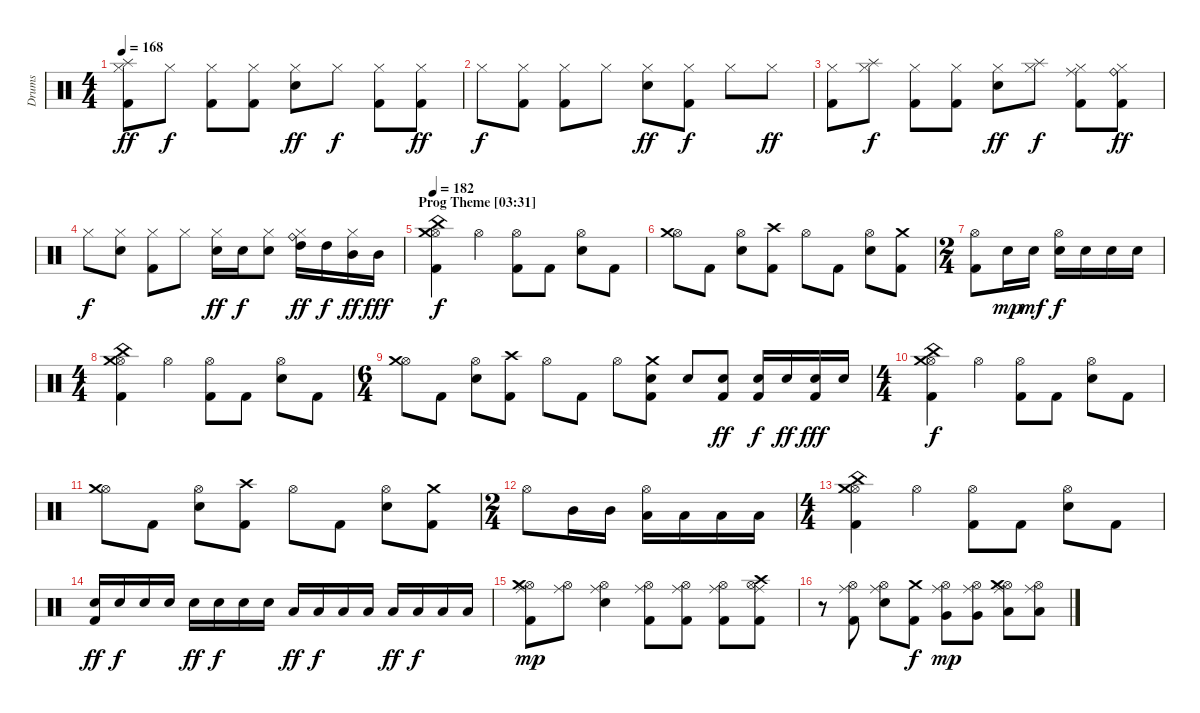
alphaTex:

\track ("Drums" "Drums") {instrument percussion}
\staff {score}
\articulation defaults
\ts (4 4)
\tempo 168
\clef neutral
\ks c
("Hi-Hat (closed)" "Splash (hit)" "Kick (hit) 2").8{dy ff} "Hi-Hat (closed)".8{dy f} ("Hi-Hat (closed)" "Kick (hit) 2").8 ("Hi-Hat (closed)" "Kick (hit) 2").8 ("Hi-Hat (closed)" "Electric Snare (hit)").8{dy ff} "Hi-Hat (closed)".8{dy f} ("Hi-Hat (closed)" "Kick (hit) 2").8 ("Hi-Hat (closed)" "Kick (hit) 2").8{dy ff} |
"Hi-Hat (closed)".8{dy f} ("Hi-Hat (closed)" "Kick (hit) 2").8 ("Hi-Hat (closed)" "Kick (hit) 2").8 "Hi-Hat (closed)".8 ("Hi-Hat (closed)" "Electric Snare (hit)").8{dy ff} ("Hi-Hat (closed)" "Kick (hit) 2").8{dy f} "Hi-Hat (closed)".8 "Hi-Hat (closed)".8{dy ff} |
("Hi-Hat (closed)" "Kick (hit) 2").8 ("Hi-Hat (closed)" "Splash (hit)").8{dy f} ("Hi-Hat (closed)" "Kick (hit) 2").8 ("Hi-Hat (closed)" "Kick (hit) 2").8 ("Hi-Hat (closed)" "Electric Snare (hit)").8{dy ff} ("Hi-Hat (closed)" "Splash (hit)").8{dy f} ("Hi-Hat (closed)" "Ride (middle)" "Kick (hit) 2").8 ("Hi-Hat (closed)" "Ride (bell)" "Kick (hit) 2").8{dy ff} |
"Hi-Hat (closed)".8{dy f} ("Hi-Hat (closed)" "Electric Snare (hit)").8 ("Hi-Hat (closed)" "Kick (hit) 2").8 "Hi-Hat (closed)".8 ("Hi-Hat (closed)" "Electric Snare (hit)").16{dy ff} "Electric Snare (hit)".16{dy f} ("Hi-Hat (closed)" "Electric Snare (hit)").8 ("Hi-Hat (closed)" "Ride (bell)" "High Tom (hit)").16{dy ff} "High Tom (hit)".16{dy f} ("Hi-Hat (closed)" "Mid Tom (hit)").16{dy ff} "Mid Tom (hit)".16{dy fff} |
\section ("" "Prog Theme [03:31]")
\tempo 182
("Hi-Hat (open)" "Crash medium (hit)" "China (hit)" "Kick (hit) 2").4{dy f} "Hi-Hat (open)".4 ("Hi-Hat (open)" "Kick (hit) 2").8 "Kick (hit) 2".8 ("Hi-Hat (open)" "Electric Snare (hit)").8 "Kick (hit) 2".8 |
("Hi-Hat (open)" "Crash medium (hit)").8 "Kick (hit) 2".8 ("Hi-Hat (open)" "Electric Snare (hit)").8 ("Crash high (hit)" "Kick (hit) 2").8 "Hi-Hat (open)".8 "Kick (hit) 2".8 ("Hi-Hat (open)" "Electric Snare (hit)").8 ("Crash medium (hit)" "Kick (hit) 2").8 |
\ts (2 4)
("Hi-Hat (open)" "Kick (hit) 2").8 "Electric Snare (hit)".16{dy mp} "Electric Snare (hit)".16{dy mf} ("Hi-Hat (open)" "Electric Snare (hit)").16{dy f} "Electric Snare (hit)".16 "Electric Snare (hit)".16 "Electric Snare (hit)".16 |
\ts (4 4)
("Hi-Hat (open)" "Crash medium (hit)" "China (hit)" "Kick (hit) 2").4 "Hi-Hat (open)".4 ("Hi-Hat (open)" "Kick (hit) 2").8 "Kick (hit) 2".8 ("Hi-Hat (open)" "Electric Snare (hit)").8 "Kick (hit) 2".8 |
\ts (6 4)
("Hi-Hat (open)" "Crash medium (hit)").8 "Kick (hit) 2".8 ("Hi-Hat (open)" "Electric Snare (hit)").8 ("Crash high (hit)" "Kick (hit) 2").8 "Hi-Hat (open)".8 "Kick (hit) 2".8 "Hi-Hat (open)".8 ("Crash medium (hit)" "Electric Snare (hit)" "Kick (hit) 2").8 "Electric Snare (hit)".8 ("Electric Snare (hit)" "Kick (hit) 2").8{dy ff} ("Electric Snare (hit)" "Kick (hit) 2").16{dy f} "Electric Snare (hit)".16{dy ff} ("Electric Snare (hit)" "Kick (hit) 2").16{dy fff} "Electric Snare (hit)".16 |
\ts (4 4)
("Hi-Hat (open)" "Crash medium (hit)" "China (hit)" "Kick (hit) 2").4{dy f} "Hi-Hat (open)".4 ("Hi-Hat (open)" "Kick (hit) 2").8 "Kick (hit) 2".8 ("Hi-Hat (open)" "Electric Snare (hit)").8 "Kick (hit) 2".8 |
("Hi-Hat (open)" "Crash medium (hit)").8 "Kick (hit) 2".8 ("Hi-Hat (open)" "Electric Snare (hit)").8 ("Crash high (hit)" "Kick (hit) 2").8 "Hi-Hat (open)".8 "Kick (hit) 2".8 ("Hi-Hat (open)" "Electric Snare (hit)").8 ("Crash medium (hit)" "Kick (hit) 2").8 |
\ts (2 4)
"Hi-Hat (open)".8 "Mid Tom (hit)".16 "Mid Tom (hit)".16 ("Hi-Hat (open)" "Low Tom (hit)").16 "Low Tom (hit)".16 "Low Tom (hit)".16 "Low Tom (hit)".16 |
\ts (4 4)
("Hi-Hat (open)" "Crash medium (hit)" "China (hit)" "Kick (hit) 2").4 "Hi-Hat (open)".4 ("Hi-Hat (open)" "Kick (hit) 2").8 "Kick (hit) 2".8 ("Hi-Hat (open)" "Electric Snare (hit)").8 "Kick (hit) 2".8 |
("Electric Snare (hit)" "Kick (hit) 2").16{dy ff} "Electric Snare (hit)".16{dy f} "Electric Snare (hit)".16 "Electric Snare (hit)".16 "Electric Snare (hit)".16{dy ff} "Electric Snare (hit)".16{dy f} "Electric Snare (hit)".16 "Electric Snare (hit)".16 "Low Tom (hit)".16{dy ff} "Low Tom (hit)".16{dy f} "Low Tom (hit)".16 "Low Tom (hit)".16 "Low Tom (hit)".16{dy ff} "Low Tom (hit)".16{dy f} "Low Tom (hit)".16 "Low Tom (hit)".16 |
("Ride (middle)" "Hi-Hat (open)" "Crash medium (hit)" "Kick (hit) 2").8{dy mp} ("Ride (middle)" "Hi-Hat (open)").8 ("Ride (middle)" "Hi-Hat (open)" "Electric Snare (hit)").4 ("Ride (middle)" "Hi-Hat (open)" "Kick (hit) 2").8 ("Ride (middle)" "Hi-Hat (open)" "Kick (hit) 2").8 ("Ride (middle)" "Hi-Hat (open)" "Kick (hit) 2").8 ("Ride (middle)" "Hi-Hat (open)" "Crash high (hit)" "Kick (hit) 2").8 |
r.8 ("Ride (middle)" "Hi-Hat (open)" "Kick (hit) 2").8 ("Ride (middle)" "Hi-Hat (open)" "Electric Snare (hit)").8 ("Crash medium (hit)" "Kick (hit) 2").8{dy f} ("Ride (middle)" "Hi-Hat (open)" "Very Low Tom (hit)").8{dy mp} ("Ride (middle)" "Hi-Hat (open)" "Very Low Tom (hit)").8 ("Ride (middle)" "Hi-Hat (open)" "Crash medium (hit)" "Low Tom (hit)").8 ("Ride (middle)" "Hi-Hat (open)" "Low Floor Tom (hit)").8
